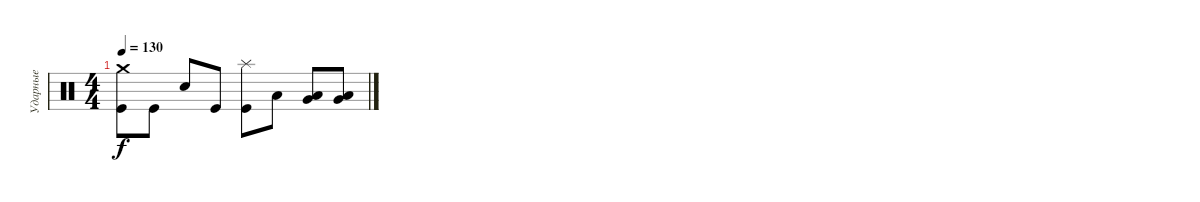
\track ("Ударные" "Ударные") {instrument percussion}
\staff {score}
\articulation defaults
\ts (4 4)
\tempo 130
\clef neutral
\ks c
("Crash medium (hit)" "Kick (hit)").8{dy f} "Kick (hit)".8 "Electric Snare (hit)".8 "Kick (hit)".8 ("Splash (hit)" "Kick (hit)").8 "Low Tom (hit)".8 ("Very Low Tom (hit)" "Low Floor Tom (hit)").8 ("Very Low Tom (hit)" "Low Floor Tom (hit)").8
